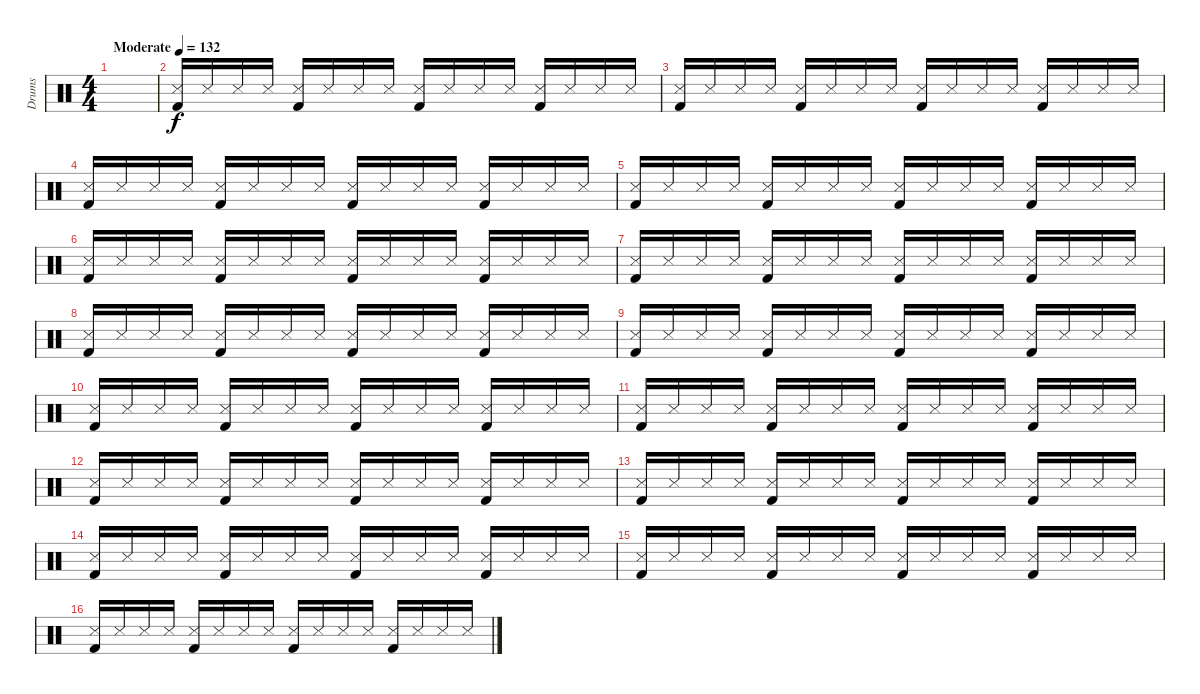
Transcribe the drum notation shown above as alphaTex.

\track ("Drums" "Drums") {instrument percussion}
\staff {score}
\articulation defaults
\ts (4 4)
\tempo (132 "Moderate")
\clef neutral
\ks c
|
("Snare (side stick) 3" "Kick (hit) 2").16 "Snare (side stick) 3".16 "Snare (side stick) 3".16 "Snare (side stick) 3".16 ("Snare (side stick) 3" "Kick (hit) 2").16 "Snare (side stick) 3".16 "Snare (side stick) 3".16 "Snare (side stick) 3".16 ("Snare (side stick) 3" "Kick (hit) 2").16 "Snare (side stick) 3".16 "Snare (side stick) 3".16 "Snare (side stick) 3".16 ("Snare (side stick) 3" "Kick (hit) 2").16 "Snare (side stick) 3".16 "Snare (side stick) 3".16 "Snare (side stick) 3".16 |
("Snare (side stick) 3" "Kick (hit) 2").16 "Snare (side stick) 3".16 "Snare (side stick) 3".16 "Snare (side stick) 3".16 ("Snare (side stick) 3" "Kick (hit) 2").16 "Snare (side stick) 3".16 "Snare (side stick) 3".16 "Snare (side stick) 3".16 ("Snare (side stick) 3" "Kick (hit) 2").16 "Snare (side stick) 3".16 "Snare (side stick) 3".16 "Snare (side stick) 3".16 ("Snare (side stick) 3" "Kick (hit) 2").16 "Snare (side stick) 3".16 "Snare (side stick) 3".16 "Snare (side stick) 3".16 |
("Snare (side stick) 3" "Kick (hit) 2").16 "Snare (side stick) 3".16 "Snare (side stick) 3".16 "Snare (side stick) 3".16 ("Snare (side stick) 3" "Kick (hit) 2").16 "Snare (side stick) 3".16 "Snare (side stick) 3".16 "Snare (side stick) 3".16 ("Snare (side stick) 3" "Kick (hit) 2").16 "Snare (side stick) 3".16 "Snare (side stick) 3".16 "Snare (side stick) 3".16 ("Snare (side stick) 3" "Kick (hit) 2").16 "Snare (side stick) 3".16 "Snare (side stick) 3".16 "Snare (side stick) 3".16 |
("Snare (side stick) 3" "Kick (hit) 2").16 "Snare (side stick) 3".16 "Snare (side stick) 3".16 "Snare (side stick) 3".16 ("Snare (side stick) 3" "Kick (hit) 2").16 "Snare (side stick) 3".16 "Snare (side stick) 3".16 "Snare (side stick) 3".16 ("Snare (side stick) 3" "Kick (hit) 2").16 "Snare (side stick) 3".16 "Snare (side stick) 3".16 "Snare (side stick) 3".16 ("Snare (side stick) 3" "Kick (hit) 2").16 "Snare (side stick) 3".16 "Snare (side stick) 3".16 "Snare (side stick) 3".16 |
("Snare (side stick) 3" "Kick (hit) 2").16 "Snare (side stick) 3".16 "Snare (side stick) 3".16 "Snare (side stick) 3".16 ("Snare (side stick) 3" "Kick (hit) 2").16 "Snare (side stick) 3".16 "Snare (side stick) 3".16 "Snare (side stick) 3".16 ("Snare (side stick) 3" "Kick (hit) 2").16 "Snare (side stick) 3".16 "Snare (side stick) 3".16 "Snare (side stick) 3".16 ("Snare (side stick) 3" "Kick (hit) 2").16 "Snare (side stick) 3".16 "Snare (side stick) 3".16 "Snare (side stick) 3".16 |
("Snare (side stick) 3" "Kick (hit) 2").16 "Snare (side stick) 3".16 "Snare (side stick) 3".16 "Snare (side stick) 3".16 ("Snare (side stick) 3" "Kick (hit) 2").16 "Snare (side stick) 3".16 "Snare (side stick) 3".16 "Snare (side stick) 3".16 ("Snare (side stick) 3" "Kick (hit) 2").16 "Snare (side stick) 3".16 "Snare (side stick) 3".16 "Snare (side stick) 3".16 ("Snare (side stick) 3" "Kick (hit) 2").16 "Snare (side stick) 3".16 "Snare (side stick) 3".16 "Snare (side stick) 3".16 |
("Snare (side stick) 3" "Kick (hit) 2").16 "Snare (side stick) 3".16 "Snare (side stick) 3".16 "Snare (side stick) 3".16 ("Snare (side stick) 3" "Kick (hit) 2").16 "Snare (side stick) 3".16 "Snare (side stick) 3".16 "Snare (side stick) 3".16 ("Snare (side stick) 3" "Kick (hit) 2").16 "Snare (side stick) 3".16 "Snare (side stick) 3".16 "Snare (side stick) 3".16 ("Snare (side stick) 3" "Kick (hit) 2").16 "Snare (side stick) 3".16 "Snare (side stick) 3".16 "Snare (side stick) 3".16 |
("Snare (side stick) 3" "Kick (hit) 2").16 "Snare (side stick) 3".16 "Snare (side stick) 3".16 "Snare (side stick) 3".16 ("Snare (side stick) 3" "Kick (hit) 2").16 "Snare (side stick) 3".16 "Snare (side stick) 3".16 "Snare (side stick) 3".16 ("Snare (side stick) 3" "Kick (hit) 2").16 "Snare (side stick) 3".16 "Snare (side stick) 3".16 "Snare (side stick) 3".16 ("Snare (side stick) 3" "Kick (hit) 2").16 "Snare (side stick) 3".16 "Snare (side stick) 3".16 "Snare (side stick) 3".16 |
("Snare (side stick) 3" "Kick (hit) 2").16 "Snare (side stick) 3".16 "Snare (side stick) 3".16 "Snare (side stick) 3".16 ("Snare (side stick) 3" "Kick (hit) 2").16 "Snare (side stick) 3".16 "Snare (side stick) 3".16 "Snare (side stick) 3".16 ("Snare (side stick) 3" "Kick (hit) 2").16 "Snare (side stick) 3".16 "Snare (side stick) 3".16 "Snare (side stick) 3".16 ("Snare (side stick) 3" "Kick (hit) 2").16 "Snare (side stick) 3".16 "Snare (side stick) 3".16 "Snare (side stick) 3".16 |
("Snare (side stick) 3" "Kick (hit) 2").16 "Snare (side stick) 3".16 "Snare (side stick) 3".16 "Snare (side stick) 3".16 ("Snare (side stick) 3" "Kick (hit) 2").16 "Snare (side stick) 3".16 "Snare (side stick) 3".16 "Snare (side stick) 3".16 ("Snare (side stick) 3" "Kick (hit) 2").16 "Snare (side stick) 3".16 "Snare (side stick) 3".16 "Snare (side stick) 3".16 ("Snare (side stick) 3" "Kick (hit) 2").16 "Snare (side stick) 3".16 "Snare (side stick) 3".16 "Snare (side stick) 3".16 |
("Snare (side stick) 3" "Kick (hit) 2").16 "Snare (side stick) 3".16 "Snare (side stick) 3".16 "Snare (side stick) 3".16 ("Snare (side stick) 3" "Kick (hit) 2").16 "Snare (side stick) 3".16 "Snare (side stick) 3".16 "Snare (side stick) 3".16 ("Snare (side stick) 3" "Kick (hit) 2").16 "Snare (side stick) 3".16 "Snare (side stick) 3".16 "Snare (side stick) 3".16 ("Snare (side stick) 3" "Kick (hit) 2").16 "Snare (side stick) 3".16 "Snare (side stick) 3".16 "Snare (side stick) 3".16 |
("Snare (side stick) 3" "Kick (hit) 2").16 "Snare (side stick) 3".16 "Snare (side stick) 3".16 "Snare (side stick) 3".16 ("Snare (side stick) 3" "Kick (hit) 2").16 "Snare (side stick) 3".16 "Snare (side stick) 3".16 "Snare (side stick) 3".16 ("Snare (side stick) 3" "Kick (hit) 2").16 "Snare (side stick) 3".16 "Snare (side stick) 3".16 "Snare (side stick) 3".16 ("Snare (side stick) 3" "Kick (hit) 2").16 "Snare (side stick) 3".16 "Snare (side stick) 3".16 "Snare (side stick) 3".16 |
("Snare (side stick) 3" "Kick (hit) 2").16 "Snare (side stick) 3".16 "Snare (side stick) 3".16 "Snare (side stick) 3".16 ("Snare (side stick) 3" "Kick (hit) 2").16 "Snare (side stick) 3".16 "Snare (side stick) 3".16 "Snare (side stick) 3".16 ("Snare (side stick) 3" "Kick (hit) 2").16 "Snare (side stick) 3".16 "Snare (side stick) 3".16 "Snare (side stick) 3".16 ("Snare (side stick) 3" "Kick (hit) 2").16 "Snare (side stick) 3".16 "Snare (side stick) 3".16 "Snare (side stick) 3".16 |
("Snare (side stick) 3" "Kick (hit) 2").16 "Snare (side stick) 3".16 "Snare (side stick) 3".16 "Snare (side stick) 3".16 ("Snare (side stick) 3" "Kick (hit) 2").16 "Snare (side stick) 3".16 "Snare (side stick) 3".16 "Snare (side stick) 3".16 ("Snare (side stick) 3" "Kick (hit) 2").16 "Snare (side stick) 3".16 "Snare (side stick) 3".16 "Snare (side stick) 3".16 ("Snare (side stick) 3" "Kick (hit) 2").16 "Snare (side stick) 3".16 "Snare (side stick) 3".16 "Snare (side stick) 3".16 |
("Snare (side stick) 3" "Kick (hit) 2").16 "Snare (side stick) 3".16 "Snare (side stick) 3".16 "Snare (side stick) 3".16 ("Snare (side stick) 3" "Kick (hit) 2").16 "Snare (side stick) 3".16 "Snare (side stick) 3".16 "Snare (side stick) 3".16 ("Snare (side stick) 3" "Kick (hit) 2").16 "Snare (side stick) 3".16 "Snare (side stick) 3".16 "Snare (side stick) 3".16 ("Snare (side stick) 3" "Kick (hit) 2").16 "Snare (side stick) 3".16 "Snare (side stick) 3".16 "Snare (side stick) 3".16
